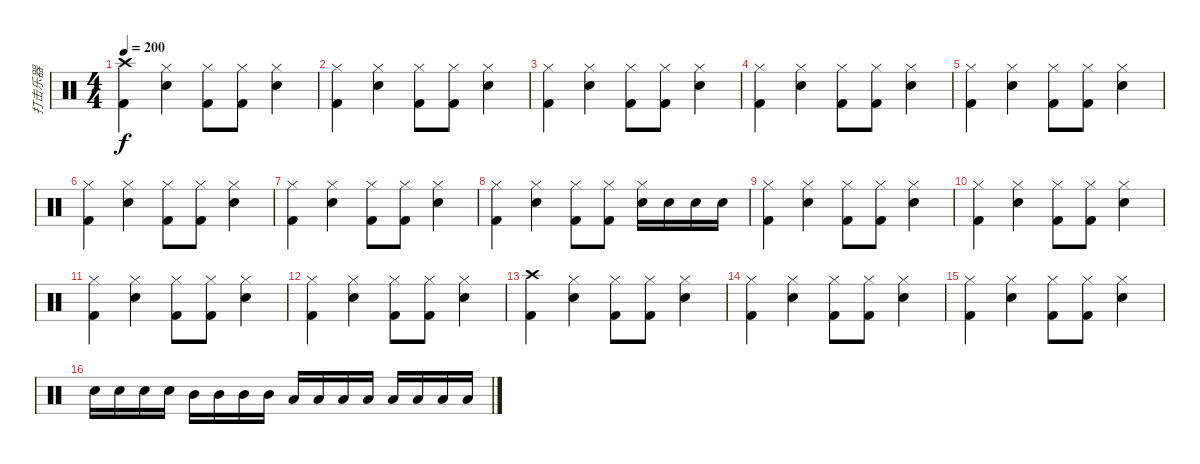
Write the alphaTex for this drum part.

\track ("打击乐器" "打击乐器") {instrument percussion}
\staff {score}
\articulation defaults
\ts (4 4)
\tempo 200
\clef neutral
\ks c
("Crash high (hit)" "Kick (hit) 2").4{dy f} ("Hi-Hat (closed)" "Snare (hit) 2").4 ("Hi-Hat (closed)" "Kick (hit) 2").8 ("Hi-Hat (closed)" "Kick (hit) 2").8 ("Hi-Hat (closed)" "Snare (hit) 2").4 |
("Hi-Hat (closed)" "Kick (hit) 2").4 ("Hi-Hat (closed)" "Snare (hit) 2").4 ("Hi-Hat (closed)" "Kick (hit) 2").8 ("Hi-Hat (closed)" "Kick (hit) 2").8 ("Hi-Hat (closed)" "Snare (hit) 2").4 |
("Hi-Hat (closed)" "Kick (hit) 2").4 ("Hi-Hat (closed)" "Snare (hit) 2").4 ("Hi-Hat (closed)" "Kick (hit) 2").8 ("Hi-Hat (closed)" "Kick (hit) 2").8 ("Hi-Hat (closed)" "Snare (hit) 2").4 |
("Hi-Hat (closed)" "Kick (hit) 2").4 ("Hi-Hat (closed)" "Snare (hit) 2").4 ("Hi-Hat (closed)" "Kick (hit) 2").8 ("Hi-Hat (closed)" "Kick (hit) 2").8 ("Hi-Hat (closed)" "Snare (hit) 2").4 |
("Hi-Hat (closed)" "Kick (hit) 2").4 ("Hi-Hat (closed)" "Snare (hit) 2").4 ("Hi-Hat (closed)" "Kick (hit) 2").8 ("Hi-Hat (closed)" "Kick (hit) 2").8 ("Hi-Hat (closed)" "Snare (hit) 2").4 |
("Hi-Hat (closed)" "Kick (hit) 2").4 ("Hi-Hat (closed)" "Snare (hit) 2").4 ("Hi-Hat (closed)" "Kick (hit) 2").8 ("Hi-Hat (closed)" "Kick (hit) 2").8 ("Hi-Hat (closed)" "Snare (hit) 2").4 |
("Hi-Hat (closed)" "Kick (hit) 2").4 ("Hi-Hat (closed)" "Snare (hit) 2").4 ("Hi-Hat (closed)" "Kick (hit) 2").8 ("Hi-Hat (closed)" "Kick (hit) 2").8 ("Hi-Hat (closed)" "Snare (hit) 2").4 |
("Hi-Hat (closed)" "Kick (hit) 2").4 ("Hi-Hat (closed)" "Snare (hit) 2").4 ("Hi-Hat (closed)" "Kick (hit) 2").8 ("Hi-Hat (closed)" "Kick (hit) 2").8 ("Hi-Hat (closed)" "Snare (hit) 2").16 "Snare (hit) 2".16 "Snare (hit) 2".16 "Snare (hit) 2".16 |
("Hi-Hat (closed)" "Kick (hit) 2").4 ("Hi-Hat (closed)" "Snare (hit) 2").4 ("Hi-Hat (closed)" "Kick (hit) 2").8 ("Hi-Hat (closed)" "Kick (hit) 2").8 ("Hi-Hat (closed)" "Snare (hit) 2").4 |
("Hi-Hat (closed)" "Kick (hit) 2").4 ("Hi-Hat (closed)" "Snare (hit) 2").4 ("Hi-Hat (closed)" "Kick (hit) 2").8 ("Hi-Hat (closed)" "Kick (hit) 2").8 ("Hi-Hat (closed)" "Snare (hit) 2").4 |
("Hi-Hat (closed)" "Kick (hit) 2").4 ("Hi-Hat (closed)" "Snare (hit) 2").4 ("Hi-Hat (closed)" "Kick (hit) 2").8 ("Hi-Hat (closed)" "Kick (hit) 2").8 ("Hi-Hat (closed)" "Snare (hit) 2").4 |
("Hi-Hat (closed)" "Kick (hit) 2").4 ("Hi-Hat (closed)" "Snare (hit) 2").4 ("Hi-Hat (closed)" "Kick (hit) 2").8 ("Hi-Hat (closed)" "Kick (hit) 2").8 ("Hi-Hat (closed)" "Snare (hit) 2").4 |
("Crash high (hit)" "Kick (hit) 2").4 ("Hi-Hat (closed)" "Snare (hit) 2").4 ("Hi-Hat (closed)" "Kick (hit) 2").8 ("Hi-Hat (closed)" "Kick (hit) 2").8 ("Hi-Hat (closed)" "Snare (hit) 2").4 |
("Hi-Hat (closed)" "Kick (hit) 2").4 ("Hi-Hat (closed)" "Snare (hit) 2").4 ("Hi-Hat (closed)" "Kick (hit) 2").8 ("Hi-Hat (closed)" "Kick (hit) 2").8 ("Hi-Hat (closed)" "Snare (hit) 2").4 |
("Hi-Hat (closed)" "Kick (hit) 2").4 ("Hi-Hat (closed)" "Snare (hit) 2").4 ("Hi-Hat (closed)" "Kick (hit) 2").8 ("Hi-Hat (closed)" "Kick (hit) 2").8 ("Hi-Hat (closed)" "Snare (hit) 2").4 |
"Snare (hit) 2".16 "Snare (hit) 2".16 "Snare (hit) 2".16 "Snare (hit) 2".16 "Mid Tom (hit)".16 "Mid Tom (hit)".16 "Mid Tom (hit)".16 "Mid Tom (hit)".16 "Low Tom (hit)".16 "Low Tom (hit)".16 "Low Tom (hit)".16 "Low Tom (hit)".16 "Low Floor Tom (hit)".16 "Low Floor Tom (hit)".16 "Low Floor Tom (hit)".16 "Low Floor Tom (hit)".16
